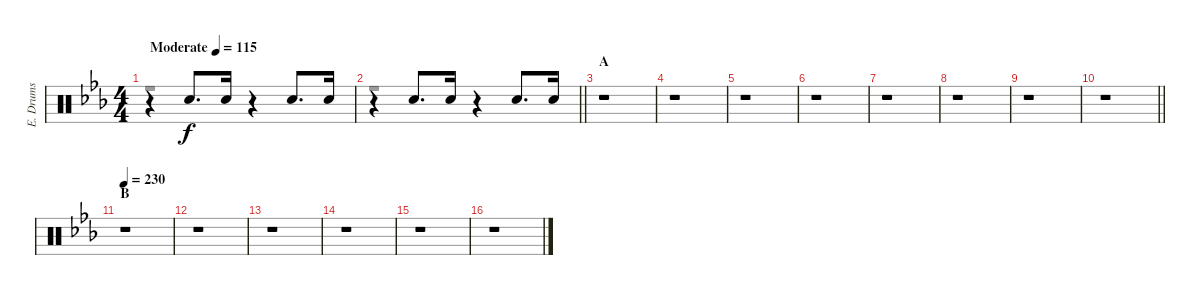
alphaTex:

\track ("E. Drums" "E. Drums") {instrument percussion}
\staff {score}
\articulation defaults
\voice
\ts (4 4)
\tempo (115 "Moderate")
\clef neutral
\ks eb
r.4{dy f} "Electric Snare (hit)".8{d} "Electric Snare (hit)".16 r.4 "Electric Snare (hit)".8{d} "Electric Snare (hit)".16 |
\barLineRight lightlight
r.4 "Electric Snare (hit)".8{d} "Electric Snare (hit)".16 r.4 "Electric Snare (hit)".8{d} "Electric Snare (hit)".16 |
\section ("" "A")
r.1 |
r.1 |
r.1 |
r.1 |
r.1 |
r.1 |
r.1 |
\barLineRight lightlight
r.1 |
\section ("" "B")
\tempo 230
r.1 |
r.1 |
r.1 |
r.1 |
r.1 |
r.1
\voice
\clef neutral
\ottava regular
\simile none
\ks eb
r.1{dy f} |
\barLineRight lightlight
r.1 |
r.1 |
r.1 |
r.1 |
r.1 |
r.1 |
r.1 |
r.1 |
\barLineRight lightlight
r.1 |
r.1 |
r.1 |
r.1 |
r.1 |
r.1 |
r.1
